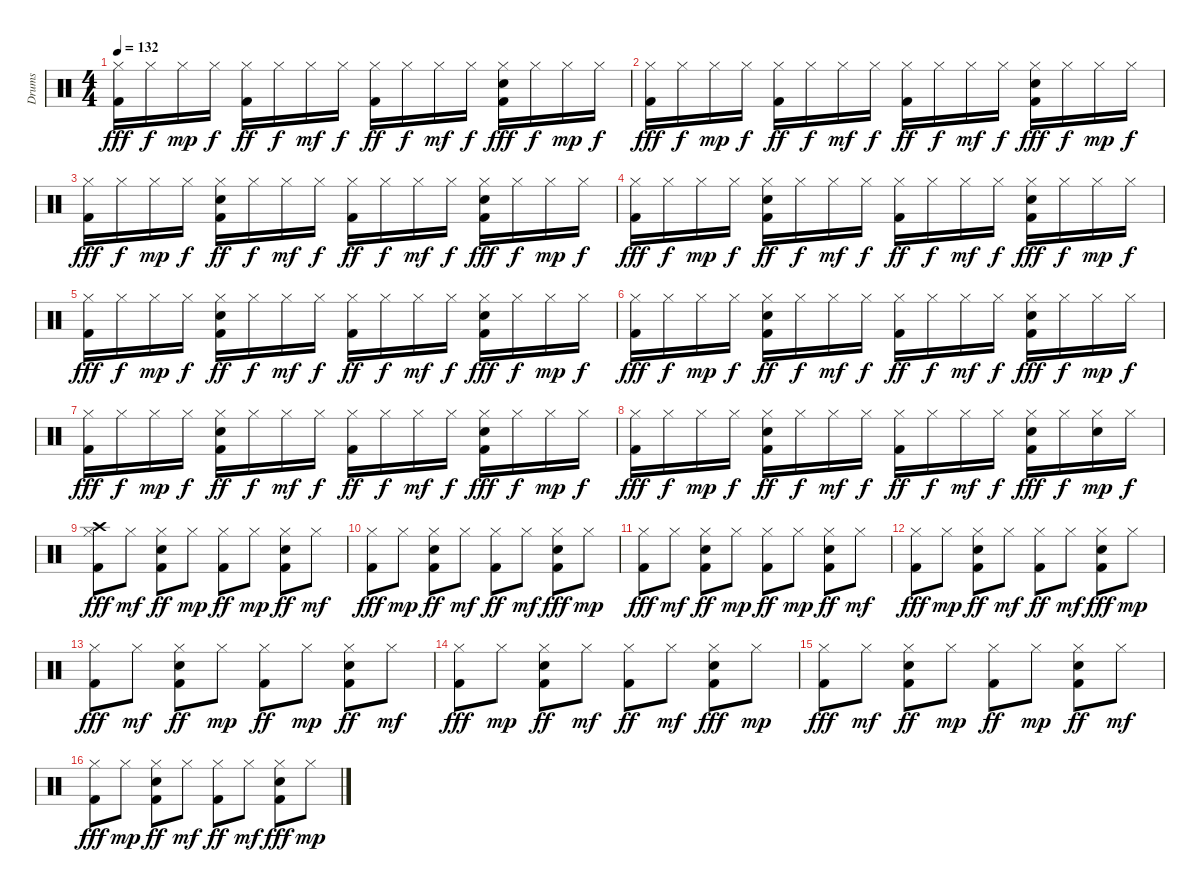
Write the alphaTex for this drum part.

\track ("Drums" "Drums") {instrument percussion}
\staff {score}
\articulation defaults
\ts (4 4)
\tempo 132
\clef neutral
\ks c
("Hi-Hat (closed)" "Kick (hit) 2").16{dy fff} "Hi-Hat (closed)".16{dy f} "Hi-Hat (closed)".16{dy mp} "Hi-Hat (closed)".16{dy f} ("Hi-Hat (closed)" "Kick (hit) 2").16{dy ff} "Hi-Hat (closed)".16{dy f} "Hi-Hat (closed)".16{dy mf} "Hi-Hat (closed)".16{dy f} ("Kick (hit) 2" "Hi-Hat (closed)").16{dy ff} "Hi-Hat (closed)".16{dy f} "Hi-Hat (closed)".16{dy mf} "Hi-Hat (closed)".16{dy f} ("Hi-Hat (closed)" "Kick (hit) 2" "Snare (hit) 2").16{dy fff} "Hi-Hat (closed)".16{dy f} "Hi-Hat (closed)".16{dy mp} "Hi-Hat (closed)".16{dy f} |
("Hi-Hat (closed)" "Kick (hit) 2").16{dy fff} "Hi-Hat (closed)".16{dy f} "Hi-Hat (closed)".16{dy mp} "Hi-Hat (closed)".16{dy f} ("Hi-Hat (closed)" "Kick (hit) 2").16{dy ff} "Hi-Hat (closed)".16{dy f} "Hi-Hat (closed)".16{dy mf} "Hi-Hat (closed)".16{dy f} ("Kick (hit) 2" "Hi-Hat (closed)").16{dy ff} "Hi-Hat (closed)".16{dy f} "Hi-Hat (closed)".16{dy mf} "Hi-Hat (closed)".16{dy f} ("Hi-Hat (closed)" "Kick (hit) 2" "Snare (hit) 2").16{dy fff} "Hi-Hat (closed)".16{dy f} "Hi-Hat (closed)".16{dy mp} "Hi-Hat (closed)".16{dy f} |
("Hi-Hat (closed)" "Kick (hit) 2").16{dy fff} "Hi-Hat (closed)".16{dy f} "Hi-Hat (closed)".16{dy mp} "Hi-Hat (closed)".16{dy f} ("Snare (hit) 2" "Hi-Hat (closed)" "Kick (hit) 2").16{dy ff} "Hi-Hat (closed)".16{dy f} "Hi-Hat (closed)".16{dy mf} "Hi-Hat (closed)".16{dy f} ("Kick (hit) 2" "Hi-Hat (closed)").16{dy ff} "Hi-Hat (closed)".16{dy f} "Hi-Hat (closed)".16{dy mf} "Hi-Hat (closed)".16{dy f} ("Hi-Hat (closed)" "Kick (hit) 2" "Snare (hit) 2").16{dy fff} "Hi-Hat (closed)".16{dy f} "Hi-Hat (closed)".16{dy mp} "Hi-Hat (closed)".16{dy f} |
("Hi-Hat (closed)" "Kick (hit) 2").16{dy fff} "Hi-Hat (closed)".16{dy f} "Hi-Hat (closed)".16{dy mp} "Hi-Hat (closed)".16{dy f} ("Hi-Hat (closed)" "Kick (hit) 2" "Snare (hit) 2").16{dy ff} "Hi-Hat (closed)".16{dy f} "Hi-Hat (closed)".16{dy mf} "Hi-Hat (closed)".16{dy f} ("Kick (hit) 2" "Hi-Hat (closed)").16{dy ff} "Hi-Hat (closed)".16{dy f} "Hi-Hat (closed)".16{dy mf} "Hi-Hat (closed)".16{dy f} ("Hi-Hat (closed)" "Kick (hit) 2" "Snare (hit) 2").16{dy fff} "Hi-Hat (closed)".16{dy f} "Hi-Hat (closed)".16{dy mp} "Hi-Hat (closed)".16{dy f} |
("Hi-Hat (closed)" "Kick (hit) 2").16{dy fff} "Hi-Hat (closed)".16{dy f} "Hi-Hat (closed)".16{dy mp} "Hi-Hat (closed)".16{dy f} ("Hi-Hat (closed)" "Kick (hit) 2" "Snare (hit) 2").16{dy ff} "Hi-Hat (closed)".16{dy f} "Hi-Hat (closed)".16{dy mf} "Hi-Hat (closed)".16{dy f} ("Kick (hit) 2" "Hi-Hat (closed)").16{dy ff} "Hi-Hat (closed)".16{dy f} "Hi-Hat (closed)".16{dy mf} "Hi-Hat (closed)".16{dy f} ("Hi-Hat (closed)" "Kick (hit) 2" "Snare (hit) 2").16{dy fff} "Hi-Hat (closed)".16{dy f} "Hi-Hat (closed)".16{dy mp} "Hi-Hat (closed)".16{dy f} |
("Hi-Hat (closed)" "Kick (hit) 2").16{dy fff} "Hi-Hat (closed)".16{dy f} "Hi-Hat (closed)".16{dy mp} "Hi-Hat (closed)".16{dy f} ("Hi-Hat (closed)" "Kick (hit) 2" "Snare (hit) 2").16{dy ff} "Hi-Hat (closed)".16{dy f} "Hi-Hat (closed)".16{dy mf} "Hi-Hat (closed)".16{dy f} ("Kick (hit) 2" "Hi-Hat (closed)").16{dy ff} "Hi-Hat (closed)".16{dy f} "Hi-Hat (closed)".16{dy mf} "Hi-Hat (closed)".16{dy f} ("Hi-Hat (closed)" "Kick (hit) 2" "Snare (hit) 2").16{dy fff} "Hi-Hat (closed)".16{dy f} "Hi-Hat (closed)".16{dy mp} "Hi-Hat (closed)".16{dy f} |
("Hi-Hat (closed)" "Kick (hit) 2").16{dy fff} "Hi-Hat (closed)".16{dy f} "Hi-Hat (closed)".16{dy mp} "Hi-Hat (closed)".16{dy f} ("Hi-Hat (closed)" "Kick (hit) 2" "Snare (hit) 2").16{dy ff} "Hi-Hat (closed)".16{dy f} "Hi-Hat (closed)".16{dy mf} "Hi-Hat (closed)".16{dy f} ("Kick (hit) 2" "Hi-Hat (closed)").16{dy ff} "Hi-Hat (closed)".16{dy f} "Hi-Hat (closed)".16{dy mf} "Hi-Hat (closed)".16{dy f} ("Hi-Hat (closed)" "Kick (hit) 2" "Snare (hit) 2").16{dy fff} "Hi-Hat (closed)".16{dy f} "Hi-Hat (closed)".16{dy mp} "Hi-Hat (closed)".16{dy f} |
("Hi-Hat (closed)" "Kick (hit) 2").16{dy fff} "Hi-Hat (closed)".16{dy f} "Hi-Hat (closed)".16{dy mp} "Hi-Hat (closed)".16{dy f} ("Hi-Hat (closed)" "Kick (hit) 2" "Snare (hit) 2").16{dy ff} "Hi-Hat (closed)".16{dy f} "Hi-Hat (closed)".16{dy mf} "Hi-Hat (closed)".16{dy f} ("Kick (hit) 2" "Hi-Hat (closed)").16{dy ff} "Hi-Hat (closed)".16{dy f} "Hi-Hat (closed)".16{dy mf} "Hi-Hat (closed)".16{dy f} ("Hi-Hat (closed)" "Kick (hit) 2" "Snare (hit) 2").16{dy fff} "Hi-Hat (closed)".16{dy f} ("Snare (hit) 2" "Hi-Hat (closed)").16{dy mp} "Hi-Hat (closed)".16{dy f} |
("Crash high (hit)" "Kick (hit) 2" "Hi-Hat (closed)").8{dy fff} "Hi-Hat (closed)".8{dy mf} ("Hi-Hat (closed)" "Kick (hit) 2" "Snare (hit) 2").8{dy ff} "Hi-Hat (closed)".8{dy mp} ("Hi-Hat (closed)" "Kick (hit) 2").8{dy ff} "Hi-Hat (closed)".8{dy mp} ("Hi-Hat (closed)" "Kick (hit) 2" "Snare (hit) 2").8{dy ff} "Hi-Hat (closed)".8{dy mf} |
("Kick (hit) 2" "Hi-Hat (closed)").8{dy fff} "Hi-Hat (closed)".8{dy mp} ("Kick (hit) 2" "Hi-Hat (closed)" "Snare (hit) 2").8{dy ff} "Hi-Hat (closed)".8{dy mf} ("Hi-Hat (closed)" "Kick (hit) 2").8{dy ff} "Hi-Hat (closed)".8{dy mf} ("Snare (hit) 2" "Kick (hit) 2" "Hi-Hat (closed)").8{dy fff} "Hi-Hat (closed)".8{dy mp} |
("Hi-Hat (closed)" "Kick (hit) 2").8{dy fff} "Hi-Hat (closed)".8{dy mf} ("Hi-Hat (closed)" "Snare (hit) 2" "Kick (hit) 2").8{dy ff} "Hi-Hat (closed)".8{dy mp} ("Kick (hit) 2" "Hi-Hat (closed)").8{dy ff} "Hi-Hat (closed)".8{dy mp} ("Hi-Hat (closed)" "Kick (hit) 2" "Snare (hit) 2").8{dy ff} "Hi-Hat (closed)".8{dy mf} |
("Hi-Hat (closed)" "Kick (hit) 2").8{dy fff} "Hi-Hat (closed)".8{dy mp} ("Snare (hit) 2" "Hi-Hat (closed)" "Kick (hit) 2").8{dy ff} "Hi-Hat (closed)".8{dy mf} ("Kick (hit) 2" "Hi-Hat (closed)").8{dy ff} "Hi-Hat (closed)".8{dy mf} ("Kick (hit) 2" "Snare (hit) 2" "Hi-Hat (closed)").8{dy fff} "Hi-Hat (closed)".8{dy mp} |
("Kick (hit) 2" "Hi-Hat (closed)").8{dy fff} "Hi-Hat (closed)".8{dy mf} ("Hi-Hat (closed)" "Kick (hit) 2" "Snare (hit) 2").8{dy ff} "Hi-Hat (closed)".8{dy mp} ("Kick (hit) 2" "Hi-Hat (closed)").8{dy ff} "Hi-Hat (closed)".8{dy mp} ("Snare (hit) 2" "Hi-Hat (closed)" "Kick (hit) 2").8{dy ff} "Hi-Hat (closed)".8{dy mf} |
("Kick (hit) 2" "Hi-Hat (closed)").8{dy fff} "Hi-Hat (closed)".8{dy mp} ("Hi-Hat (closed)" "Snare (hit) 2" "Kick (hit) 2").8{dy ff} "Hi-Hat (closed)".8{dy mf} ("Hi-Hat (closed)" "Kick (hit) 2").8{dy ff} "Hi-Hat (closed)".8{dy mf} ("Snare (hit) 2" "Kick (hit) 2" "Hi-Hat (closed)").8{dy fff} "Hi-Hat (closed)".8{dy mp} |
("Kick (hit) 2" "Hi-Hat (closed)").8{dy fff} "Hi-Hat (closed)".8{dy mf} ("Hi-Hat (closed)" "Snare (hit) 2" "Kick (hit) 2").8{dy ff} "Hi-Hat (closed)".8{dy mp} ("Kick (hit) 2" "Hi-Hat (closed)").8{dy ff} "Hi-Hat (closed)".8{dy mp} ("Kick (hit) 2" "Hi-Hat (closed)" "Snare (hit) 2").8{dy ff} "Hi-Hat (closed)".8{dy mf} |
("Kick (hit) 2" "Hi-Hat (closed)").8{dy fff} "Hi-Hat (closed)".8{dy mp} ("Hi-Hat (closed)" "Kick (hit) 2" "Snare (hit) 2").8{dy ff} "Hi-Hat (closed)".8{dy mf} ("Kick (hit) 2" "Hi-Hat (closed)").8{dy ff} "Hi-Hat (closed)".8{dy mf} ("Hi-Hat (closed)" "Snare (hit) 2" "Kick (hit) 2").8{dy fff} "Hi-Hat (closed)".8{dy mp}
